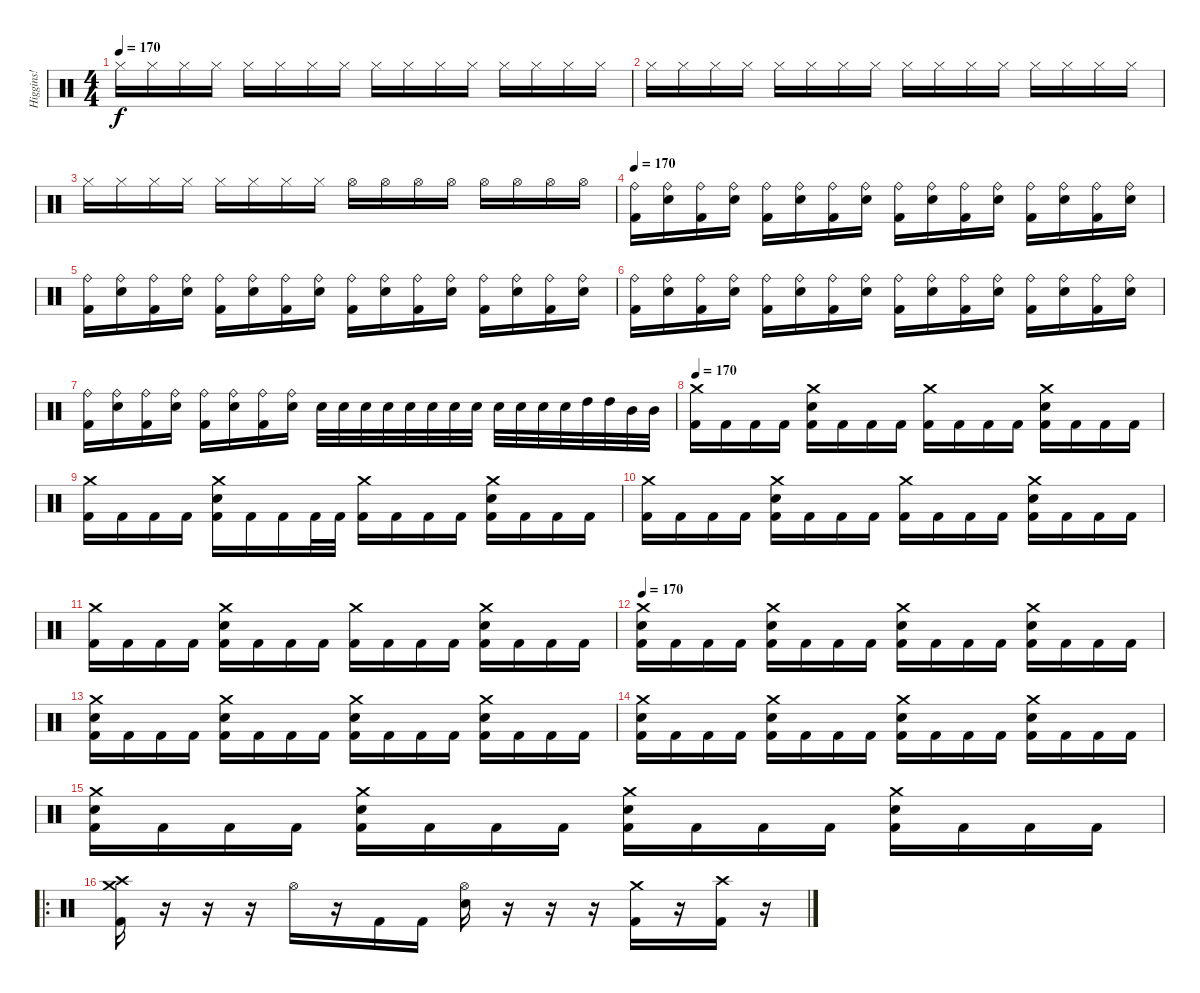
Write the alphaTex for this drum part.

\track ("Higgins!" "Higgins!") {instrument percussion}
\staff {score}
\articulation defaults
\ts (4 4)
\tempo 170
\clef neutral
\ks c "Hi-Hat (closed)".16{dy f} "Hi-Hat (closed)".16 "Hi-Hat (closed)".16 "Hi-Hat (closed)".16 "Hi-Hat (closed)".16 "Hi-Hat (closed)".16 "Hi-Hat (closed)".16 "Hi-Hat (closed)".16 "Hi-Hat (closed)".16 "Hi-Hat (closed)".16 "Hi-Hat (closed)".16 "Hi-Hat (closed)".16 "Hi-Hat (closed)".16 "Hi-Hat (closed)".16 "Hi-Hat (closed)".16 "Hi-Hat (closed)".16
|
"Hi-Hat (closed)".16 "Hi-Hat (closed)".16 "Hi-Hat (closed)".16 "Hi-Hat (closed)".16 "Hi-Hat (closed)".16 "Hi-Hat (closed)".16 "Hi-Hat (closed)".16 "Hi-Hat (closed)".16 "Hi-Hat (closed)".16 "Hi-Hat (closed)".16 "Hi-Hat (closed)".16 "Hi-Hat (closed)".16 "Hi-Hat (closed)".16 "Hi-Hat (closed)".16 "Hi-Hat (closed)".16 "Hi-Hat (closed)".16 |
"Hi-Hat (closed)".16 "Hi-Hat (closed)".16 "Hi-Hat (closed)".16 "Hi-Hat (closed)".16 "Hi-Hat (closed)".16 "Hi-Hat (closed)".16 "Hi-Hat (closed)".16 "Hi-Hat (closed)".16 "Hi-Hat (open)".16 "Hi-Hat (open)".16 "Hi-Hat (open)".16 "Hi-Hat (open)".16 "Hi-Hat (open)".16 "Hi-Hat (open)".16 "Hi-Hat (open)".16 "Hi-Hat (open)".16 |
\tempo 170
("Ride (bell)" "Kick (hit) 2").16 ("Ride (bell)" "Snare (hit) 2").16 ("Ride (bell)" "Kick (hit) 2").16 ("Ride (bell)" "Snare (hit) 2").16 ("Ride (bell)" "Kick (hit) 2").16 ("Ride (bell)" "Snare (hit) 2").16 ("Ride (bell)" "Kick (hit) 2").16 ("Ride (bell)" "Snare (hit) 2").16 ("Ride (bell)" "Kick (hit) 2").16 ("Ride (bell)" "Snare (hit) 2").16 ("Ride (bell)" "Kick (hit) 2").16 ("Ride (bell)" "Snare (hit) 2").16 ("Ride (bell)" "Kick (hit) 2").16 ("Ride (bell)" "Snare (hit) 2").16 ("Ride (bell)" "Kick (hit) 2").16 ("Ride (bell)" "Snare (hit) 2").16 |
("Ride (bell)" "Kick (hit) 2").16 ("Ride (bell)" "Snare (hit) 2").16 ("Ride (bell)" "Kick (hit) 2").16 ("Ride (bell)" "Snare (hit) 2").16 ("Ride (bell)" "Kick (hit) 2").16 ("Ride (bell)" "Snare (hit) 2").16 ("Ride (bell)" "Kick (hit) 2").16 ("Ride (bell)" "Snare (hit) 2").16 ("Ride (bell)" "Kick (hit) 2").16 ("Ride (bell)" "Snare (hit) 2").16 ("Ride (bell)" "Kick (hit) 2").16 ("Ride (bell)" "Snare (hit) 2").16 ("Ride (bell)" "Kick (hit) 2").16 ("Ride (bell)" "Snare (hit) 2").16 ("Ride (bell)" "Kick (hit) 2").16 ("Ride (bell)" "Snare (hit) 2").16 |
("Ride (bell)" "Kick (hit) 2").16 ("Ride (bell)" "Snare (hit) 2").16 ("Ride (bell)" "Kick (hit) 2").16 ("Ride (bell)" "Snare (hit) 2").16 ("Ride (bell)" "Kick (hit) 2").16 ("Ride (bell)" "Snare (hit) 2").16 ("Ride (bell)" "Kick (hit) 2").16 ("Ride (bell)" "Snare (hit) 2").16 ("Ride (bell)" "Kick (hit) 2").16 ("Ride (bell)" "Snare (hit) 2").16 ("Ride (bell)" "Kick (hit) 2").16 ("Ride (bell)" "Snare (hit) 2").16 ("Ride (bell)" "Kick (hit) 2").16 ("Ride (bell)" "Snare (hit) 2").16 ("Ride (bell)" "Kick (hit) 2").16 ("Ride (bell)" "Snare (hit) 2").16 |
("Ride (bell)" "Kick (hit) 2").16 ("Ride (bell)" "Snare (hit) 2").16 ("Ride (bell)" "Kick (hit) 2").16 ("Ride (bell)" "Snare (hit) 2").16 ("Ride (bell)" "Kick (hit) 2").16 ("Ride (bell)" "Snare (hit) 2").16 ("Ride (bell)" "Kick (hit) 2").16 ("Ride (bell)" "Snare (hit) 2").16 "Snare (hit) 2".32 "Snare (hit) 2".32 "Snare (hit) 2".32 "Snare (hit) 2".32 "Snare (hit) 2".32 "Snare (hit) 2".32 "Snare (hit) 2".32 "Snare (hit) 2".32 "Snare (hit) 2".32 "Snare (hit) 2".32 "Snare (hit) 2".32 "Snare (hit) 2".32 "High Tom (hit)".32 "High Tom (hit)".32 "Mid Tom (hit)".32 "Mid Tom (hit)".32 |
\tempo 165
\tempo 170
("Crash medium (hit)" "Kick (hit) 2").16 "Kick (hit) 2".16 "Kick (hit) 2".16 "Kick (hit) 2".16 ("Crash medium (hit)" "Snare (hit) 2" "Kick (hit) 2").16 "Kick (hit) 2".16 "Kick (hit) 2".16 "Kick (hit) 2".16 ("Crash medium (hit)" "Kick (hit) 2").16 "Kick (hit) 2".16 "Kick (hit) 2".16 "Kick (hit) 2".16 ("Crash medium (hit)" "Snare (hit) 2" "Kick (hit) 2").16 "Kick (hit) 2".16 "Kick (hit) 2".16 "Kick (hit) 2".16 |
("Crash medium (hit)" "Kick (hit) 2").16 "Kick (hit) 2".16 "Kick (hit) 2".16 "Kick (hit) 2".16 ("Snare (hit) 2" "Crash medium (hit)" "Kick (hit) 2").16 "Kick (hit) 2".16 "Kick (hit) 2".16 "Kick (hit) 2".32 "Kick (hit) 2".32 ("Crash medium (hit)" "Kick (hit) 2").16 "Kick (hit) 2".16 "Kick (hit) 2".16 "Kick (hit) 2".16 ("Crash medium (hit)" "Snare (hit) 2" "Kick (hit) 2").16 "Kick (hit) 2".16 "Kick (hit) 2".16 "Kick (hit) 2".16 |
("Crash medium (hit)" "Kick (hit) 2").16 "Kick (hit) 2".16 "Kick (hit) 2".16 "Kick (hit) 2".16 ("Snare (hit) 2" "Crash medium (hit)" "Kick (hit) 2").16 "Kick (hit) 2".16 "Kick (hit) 2".16 "Kick (hit) 2".16 ("Crash medium (hit)" "Kick (hit) 2").16 "Kick (hit) 2".16 "Kick (hit) 2".16 "Kick (hit) 2".16 ("Crash medium (hit)" "Snare (hit) 2" "Kick (hit) 2").16 "Kick (hit) 2".16 "Kick (hit) 2".16 "Kick (hit) 2".16 |
("Crash medium (hit)" "Kick (hit) 2").16 "Kick (hit) 2".16 "Kick (hit) 2".16 "Kick (hit) 2".16 ("Snare (hit) 2" "Crash medium (hit)" "Kick (hit) 2").16 "Kick (hit) 2".16 "Kick (hit) 2".16 "Kick (hit) 2".16 ("Crash medium (hit)" "Kick (hit) 2").16 "Kick (hit) 2".16 "Kick (hit) 2".16 "Kick (hit) 2".16 ("Crash medium (hit)" "Snare (hit) 2" "Kick (hit) 2").16 "Kick (hit) 2".16 "Kick (hit) 2".16 "Kick (hit) 2".16 |
\tempo 170
("Crash medium (hit)" "Snare (hit) 2" "Kick (hit) 2").16 "Kick (hit) 2".16 "Kick (hit) 2".16 "Kick (hit) 2".16 ("Crash medium (hit)" "Snare (hit) 2" "Kick (hit) 2").16 "Kick (hit) 2".16 "Kick (hit) 2".16 "Kick (hit) 2".16 ("Snare (hit) 2" "Crash medium (hit)" "Kick (hit) 2").16 "Kick (hit) 2".16 "Kick (hit) 2".16 "Kick (hit) 2".16 ("Crash medium (hit)" "Snare (hit) 2" "Kick (hit) 2").16 "Kick (hit) 2".16 "Kick (hit) 2".16 "Kick (hit) 2".16 |
("Crash medium (hit)" "Snare (hit) 2" "Kick (hit) 2").16 "Kick (hit) 2".16 "Kick (hit) 2".16 "Kick (hit) 2".16 ("Crash medium (hit)" "Snare (hit) 2" "Kick (hit) 2").16 "Kick (hit) 2".16 "Kick (hit) 2".16 "Kick (hit) 2".16 ("Crash medium (hit)" "Snare (hit) 2" "Kick (hit) 2").16 "Kick (hit) 2".16 "Kick (hit) 2".16 "Kick (hit) 2".16 ("Crash medium (hit)" "Snare (hit) 2" "Kick (hit) 2").16 "Kick (hit) 2".16 "Kick (hit) 2".16 "Kick (hit) 2".16 |
("Crash medium (hit)" "Snare (hit) 2" "Kick (hit) 2").16 "Kick (hit) 2".16 "Kick (hit) 2".16 "Kick (hit) 2".16 ("Crash medium (hit)" "Snare (hit) 2" "Kick (hit) 2").16 "Kick (hit) 2".16 "Kick (hit) 2".16 "Kick (hit) 2".16 ("Crash medium (hit)" "Snare (hit) 2" "Kick (hit) 2").16 "Kick (hit) 2".16 "Kick (hit) 2".16 "Kick (hit) 2".16 ("Crash medium (hit)" "Snare (hit) 2" "Kick (hit) 2").16 "Kick (hit) 2".16 "Kick (hit) 2".16 "Kick (hit) 2".16 |
("Crash medium (hit)" "Snare (hit) 2" "Kick (hit) 2").16 "Kick (hit) 2".16 "Kick (hit) 2".16 "Kick (hit) 2".16 ("Crash medium (hit)" "Snare (hit) 2" "Kick (hit) 2").16 "Kick (hit) 2".16 "Kick (hit) 2".16 "Kick (hit) 2".16 ("Crash medium (hit)" "Snare (hit) 2" "Kick (hit) 2").16 "Kick (hit) 2".16 "Kick (hit) 2".16 "Kick (hit) 2".16 ("Crash medium (hit)" "Snare (hit) 2" "Kick (hit) 2").16 "Kick (hit) 2".16 "Kick (hit) 2".16 "Kick (hit) 2".16 |
\ro
("Crash high (hit)" "Crash medium (hit)" "Kick (hit) 2").16 r.16 r.16 r.16 "Hi-Hat (open)".16 r.16 "Kick (hit) 2".16 "Kick (hit) 2".16 ("Hi-Hat (open)" "Snare (hit) 2").16 r.16 r.16 r.16 ("Crash medium (hit)" "Kick (hit) 2").16 r.16 ("Crash high (hit)" "Kick (hit) 2").16 r.16
